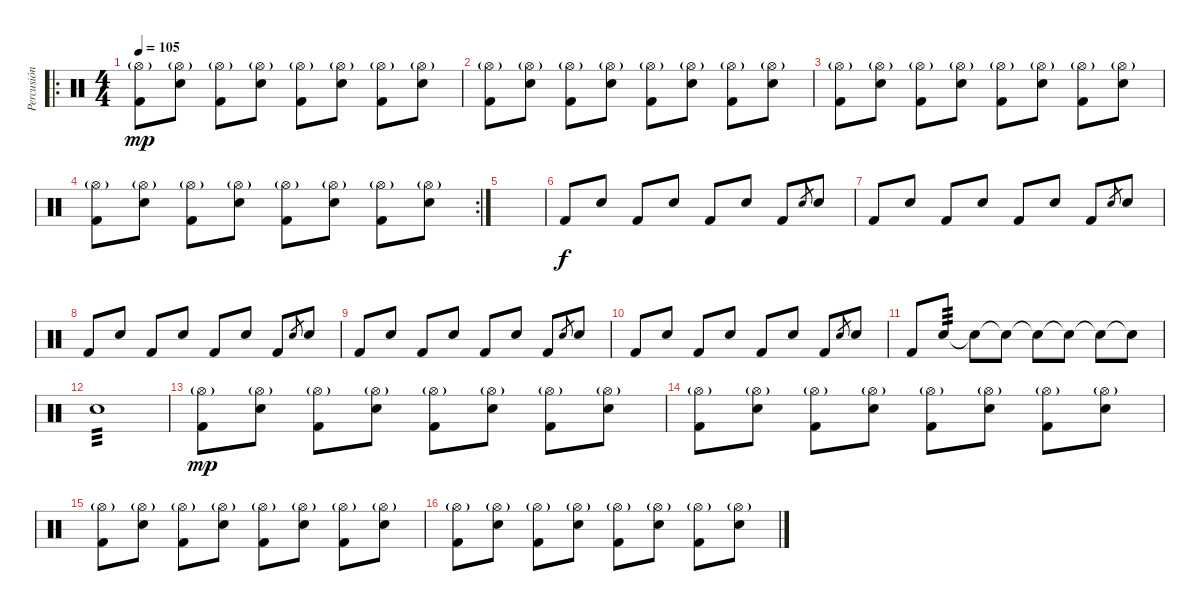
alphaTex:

\track ("Percusión" "Percusión") {instrument percussion}
\staff {score}
\articulation defaults
\ro
\ts (4 4)
\tempo 105
\clef neutral
\ks c
("Hi-Hat (open)"{g} "Kick (hit) 2").8{dy mp} ("Hi-Hat (open)"{g} "Electric Snare (hit)").8 ("Hi-Hat (open)"{g} "Kick (hit) 2").8 ("Hi-Hat (open)"{g} "Electric Snare (hit)").8 ("Hi-Hat (open)"{g} "Kick (hit) 2").8 ("Hi-Hat (open)"{g} "Electric Snare (hit)").8 ("Hi-Hat (open)"{g} "Kick (hit) 2").8 ("Hi-Hat (open)"{g} "Electric Snare (hit)").8 |
("Hi-Hat (open)"{g} "Kick (hit) 2").8 ("Hi-Hat (open)"{g} "Electric Snare (hit)").8 ("Hi-Hat (open)"{g} "Kick (hit) 2").8 ("Hi-Hat (open)"{g} "Electric Snare (hit)").8 ("Hi-Hat (open)"{g} "Kick (hit) 2").8 ("Hi-Hat (open)"{g} "Electric Snare (hit)").8 ("Hi-Hat (open)"{g} "Kick (hit) 2").8 ("Hi-Hat (open)"{g} "Electric Snare (hit)").8 |
("Hi-Hat (open)"{g} "Kick (hit) 2").8 ("Hi-Hat (open)"{g} "Electric Snare (hit)").8 ("Hi-Hat (open)"{g} "Kick (hit) 2").8 ("Hi-Hat (open)"{g} "Electric Snare (hit)").8 ("Hi-Hat (open)"{g} "Kick (hit) 2").8 ("Hi-Hat (open)"{g} "Electric Snare (hit)").8 ("Hi-Hat (open)"{g} "Kick (hit) 2").8 ("Hi-Hat (open)"{g} "Electric Snare (hit)").8 |
\rc 2
("Hi-Hat (open)"{g} "Kick (hit) 2").8 ("Hi-Hat (open)"{g} "Electric Snare (hit)").8 ("Hi-Hat (open)"{g} "Kick (hit) 2").8 ("Hi-Hat (open)"{g} "Electric Snare (hit)").8 ("Hi-Hat (open)"{g} "Kick (hit) 2").8 ("Hi-Hat (open)"{g} "Electric Snare (hit)").8 ("Hi-Hat (open)"{g} "Kick (hit) 2").8 ("Hi-Hat (open)"{g} "Electric Snare (hit)").8 |
|
"Kick (hit) 2".8{dy f} "Electric Snare (hit)".8 "Kick (hit) 2".8 "Electric Snare (hit)".8 "Kick (hit) 2".8 "Electric Snare (hit)".8 "Kick (hit) 2".8 "Electric Snare (hit)".8{gr} "Electric Snare (hit)".8 |
"Kick (hit) 2".8 "Electric Snare (hit)".8 "Kick (hit) 2".8 "Electric Snare (hit)".8 "Kick (hit) 2".8 "Electric Snare (hit)".8 "Kick (hit) 2".8 "Electric Snare (hit)".8{gr} "Electric Snare (hit)".8 |
"Kick (hit) 2".8 "Electric Snare (hit)".8 "Kick (hit) 2".8 "Electric Snare (hit)".8 "Kick (hit) 2".8 "Electric Snare (hit)".8 "Kick (hit) 2".8 "Electric Snare (hit)".8{gr} "Electric Snare (hit)".8 |
"Kick (hit) 2".8 "Electric Snare (hit)".8 "Kick (hit) 2".8 "Electric Snare (hit)".8 "Kick (hit) 2".8 "Electric Snare (hit)".8 "Kick (hit) 2".8 "Electric Snare (hit)".8{gr} "Electric Snare (hit)".8 |
"Kick (hit) 2".8 "Electric Snare (hit)".8 "Kick (hit) 2".8 "Electric Snare (hit)".8 "Kick (hit) 2".8 "Electric Snare (hit)".8 "Kick (hit) 2".8 "Electric Snare (hit)".8{gr} "Electric Snare (hit)".8 |
"Kick (hit) 2".8 "Electric Snare (hit)".8{tp 3} "Snare (hit)"{t}.8 "Snare (hit)"{t}.8 "Snare (hit)"{t}.8 "Snare (hit)"{t}.8 "Snare (hit)"{t}.8 "Snare (hit)"{t}.8 |
"Snare (hit) 2".1{tp 3} |
("Hi-Hat (open)"{g} "Kick (hit) 2").8{dy mp} ("Hi-Hat (open)"{g} "Electric Snare (hit)").8 ("Hi-Hat (open)"{g} "Kick (hit) 2").8 ("Hi-Hat (open)"{g} "Electric Snare (hit)").8 ("Hi-Hat (open)"{g} "Kick (hit) 2").8 ("Hi-Hat (open)"{g} "Electric Snare (hit)").8 ("Hi-Hat (open)"{g} "Kick (hit) 2").8 ("Hi-Hat (open)"{g} "Electric Snare (hit)").8 |
("Hi-Hat (open)"{g} "Kick (hit) 2").8 ("Hi-Hat (open)"{g} "Electric Snare (hit)").8 ("Hi-Hat (open)"{g} "Kick (hit) 2").8 ("Hi-Hat (open)"{g} "Electric Snare (hit)").8 ("Hi-Hat (open)"{g} "Kick (hit) 2").8 ("Hi-Hat (open)"{g} "Electric Snare (hit)").8 ("Hi-Hat (open)"{g} "Kick (hit) 2").8 ("Hi-Hat (open)"{g} "Electric Snare (hit)").8 |
("Hi-Hat (open)"{g} "Kick (hit) 2").8 ("Hi-Hat (open)"{g} "Electric Snare (hit)").8 ("Hi-Hat (open)"{g} "Kick (hit) 2").8 ("Hi-Hat (open)"{g} "Electric Snare (hit)").8 ("Hi-Hat (open)"{g} "Kick (hit) 2").8 ("Hi-Hat (open)"{g} "Electric Snare (hit)").8 ("Hi-Hat (open)"{g} "Kick (hit) 2").8 ("Hi-Hat (open)"{g} "Electric Snare (hit)").8 |
("Hi-Hat (open)"{g} "Kick (hit) 2").8 ("Hi-Hat (open)"{g} "Electric Snare (hit)").8 ("Hi-Hat (open)"{g} "Kick (hit) 2").8 ("Hi-Hat (open)"{g} "Electric Snare (hit)").8 ("Hi-Hat (open)"{g} "Kick (hit) 2").8 ("Hi-Hat (open)"{g} "Electric Snare (hit)").8 ("Hi-Hat (open)"{g} "Kick (hit) 2").8 ("Hi-Hat (open)"{g} "Electric Snare (hit)").8
